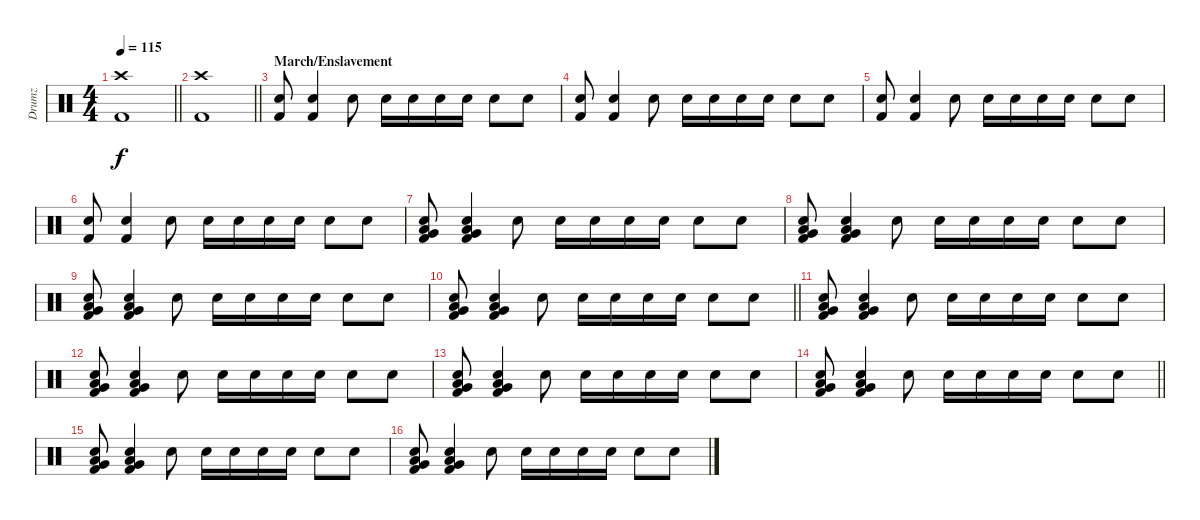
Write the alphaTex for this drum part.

\track ("Drumz" "Drumz") {instrument percussion}
\staff {score}
\articulation defaults
\ts (4 4)
\tempo 115
\clef neutral
\barLineRight lightlight
\ks c
("Crash high (hit)" "Kick (hit) 2").1{dy f} |
\barLineRight lightlight
("Crash high (hit)" "Kick (hit) 2").1 |
\section ("" "March/Enslavement")
("Snare (hit) 2" "Kick (hit) 2").8 ("Snare (hit) 2" "Kick (hit) 2").4 "Snare (hit) 2".8 "Snare (hit) 2".16 "Snare (hit) 2".16 "Snare (hit) 2".16 "Snare (hit) 2".16 "Snare (hit) 2".8 "Snare (hit) 2".8 |
("Snare (hit) 2" "Kick (hit) 2").8 ("Snare (hit) 2" "Kick (hit) 2").4 "Snare (hit) 2".8 "Snare (hit) 2".16 "Snare (hit) 2".16 "Snare (hit) 2".16 "Snare (hit) 2".16 "Snare (hit) 2".8 "Snare (hit) 2".8 |
("Snare (hit) 2" "Kick (hit) 2").8 ("Snare (hit) 2" "Kick (hit) 2").4 "Snare (hit) 2".8 "Snare (hit) 2".16 "Snare (hit) 2".16 "Snare (hit) 2".16 "Snare (hit) 2".16 "Snare (hit) 2".8 "Snare (hit) 2".8 |
("Snare (hit) 2" "Kick (hit) 2").8 ("Snare (hit) 2" "Kick (hit) 2").4 "Snare (hit) 2".8 "Snare (hit) 2".16 "Snare (hit) 2".16 "Snare (hit) 2".16 "Snare (hit) 2".16 "Snare (hit) 2".8 "Snare (hit) 2".8 |
("Snare (hit) 2" "Very Low Tom (hit)" "Low Floor Tom (hit)" "Kick (hit) 2").8 ("Snare (hit) 2" "Very Low Tom (hit)" "Low Floor Tom (hit)" "Kick (hit) 2").4 "Snare (hit) 2".8 "Snare (hit) 2".16 "Snare (hit) 2".16 "Snare (hit) 2".16 "Snare (hit) 2".16 "Snare (hit) 2".8 "Snare (hit) 2".8 |
("Snare (hit) 2" "Very Low Tom (hit)" "Low Floor Tom (hit)" "Kick (hit) 2").8 ("Snare (hit) 2" "Very Low Tom (hit)" "Low Floor Tom (hit)" "Kick (hit) 2").4 "Snare (hit) 2".8 "Snare (hit) 2".16 "Snare (hit) 2".16 "Snare (hit) 2".16 "Snare (hit) 2".16 "Snare (hit) 2".8 "Snare (hit) 2".8 |
("Snare (hit) 2" "Very Low Tom (hit)" "Low Floor Tom (hit)" "Kick (hit) 2").8 ("Snare (hit) 2" "Very Low Tom (hit)" "Low Floor Tom (hit)" "Kick (hit) 2").4 "Snare (hit) 2".8 "Snare (hit) 2".16 "Snare (hit) 2".16 "Snare (hit) 2".16 "Snare (hit) 2".16 "Snare (hit) 2".8 "Snare (hit) 2".8 |
\barLineRight lightlight
("Snare (hit) 2" "Very Low Tom (hit)" "Low Floor Tom (hit)" "Kick (hit) 2").8 ("Snare (hit) 2" "Very Low Tom (hit)" "Low Floor Tom (hit)" "Kick (hit) 2").4 "Snare (hit) 2".8 "Snare (hit) 2".16 "Snare (hit) 2".16 "Snare (hit) 2".16 "Snare (hit) 2".16 "Snare (hit) 2".8 "Snare (hit) 2".8 |
("Snare (hit) 2" "Very Low Tom (hit)" "Low Floor Tom (hit)" "Kick (hit) 2").8 ("Snare (hit) 2" "Very Low Tom (hit)" "Low Floor Tom (hit)" "Kick (hit) 2").4 "Snare (hit) 2".8 "Snare (hit) 2".16 "Snare (hit) 2".16 "Snare (hit) 2".16 "Snare (hit) 2".16 "Snare (hit) 2".8 "Snare (hit) 2".8 |
("Snare (hit) 2" "Very Low Tom (hit)" "Low Floor Tom (hit)" "Kick (hit) 2").8 ("Snare (hit) 2" "Very Low Tom (hit)" "Low Floor Tom (hit)" "Kick (hit) 2").4 "Snare (hit) 2".8 "Snare (hit) 2".16 "Snare (hit) 2".16 "Snare (hit) 2".16 "Snare (hit) 2".16 "Snare (hit) 2".8 "Snare (hit) 2".8 |
("Snare (hit) 2" "Very Low Tom (hit)" "Low Floor Tom (hit)" "Kick (hit) 2").8 ("Snare (hit) 2" "Very Low Tom (hit)" "Low Floor Tom (hit)" "Kick (hit) 2").4 "Snare (hit) 2".8 "Snare (hit) 2".16 "Snare (hit) 2".16 "Snare (hit) 2".16 "Snare (hit) 2".16 "Snare (hit) 2".8 "Snare (hit) 2".8 |
\barLineRight lightlight
("Snare (hit) 2" "Very Low Tom (hit)" "Low Floor Tom (hit)" "Kick (hit) 2").8 ("Snare (hit) 2" "Very Low Tom (hit)" "Low Floor Tom (hit)" "Kick (hit) 2").4 "Snare (hit) 2".8 "Snare (hit) 2".16 "Snare (hit) 2".16 "Snare (hit) 2".16 "Snare (hit) 2".16 "Snare (hit) 2".8 "Snare (hit) 2".8 |
("Snare (hit) 2" "Very Low Tom (hit)" "Low Floor Tom (hit)" "Kick (hit) 2").8 ("Snare (hit) 2" "Very Low Tom (hit)" "Low Floor Tom (hit)" "Kick (hit) 2").4 "Snare (hit) 2".8 "Snare (hit) 2".16 "Snare (hit) 2".16 "Snare (hit) 2".16 "Snare (hit) 2".16 "Snare (hit) 2".8 "Snare (hit) 2".8 |
("Snare (hit) 2" "Very Low Tom (hit)" "Low Floor Tom (hit)" "Kick (hit) 2").8 ("Snare (hit) 2" "Very Low Tom (hit)" "Low Floor Tom (hit)" "Kick (hit) 2").4 "Snare (hit) 2".8 "Snare (hit) 2".16 "Snare (hit) 2".16 "Snare (hit) 2".16 "Snare (hit) 2".16 "Snare (hit) 2".8 "Snare (hit) 2".8
